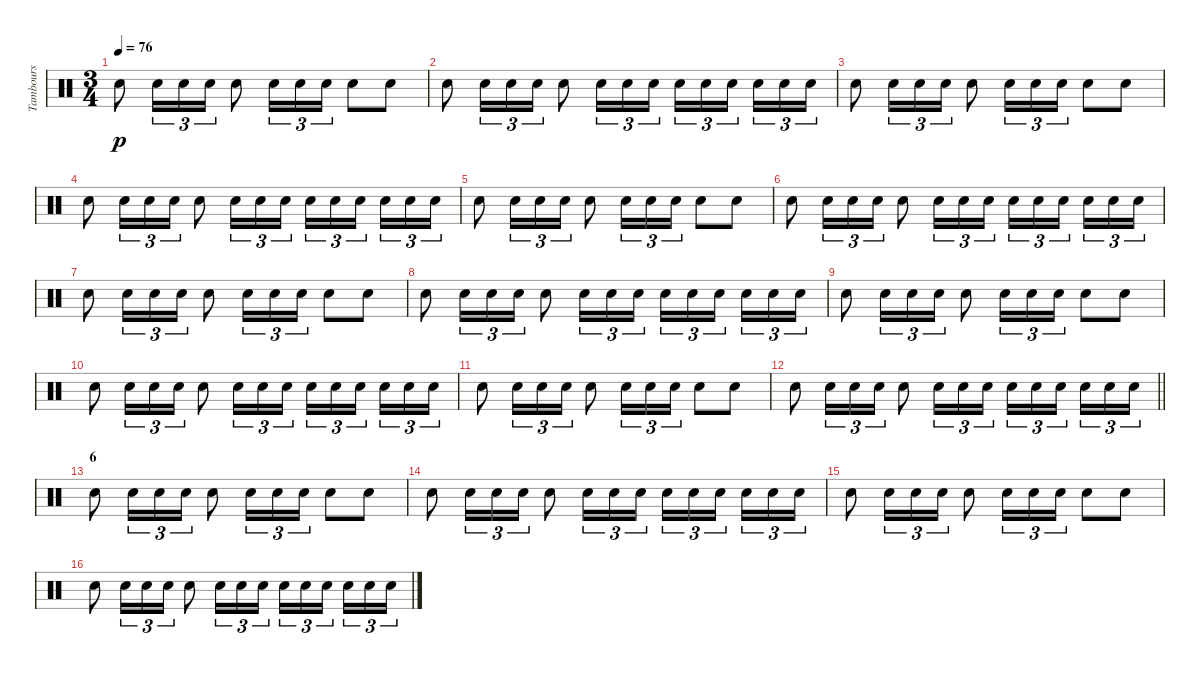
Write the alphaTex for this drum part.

\track ("Tambours" "Tambours") {instrument percussion}
\staff {score}
\articulation defaults
\ts (3 4)
\tempo 76
\clef neutral
\ks c "Snare (hit) 2".8{dy p} "Snare (hit) 2".16{tu (3 2)} "Snare (hit) 2".16{tu (3 2)} "Snare (hit) 2".16{tu (3 2)} "Snare (hit) 2".8 "Snare (hit) 2".16{tu (3 2)} "Snare (hit) 2".16{tu (3 2)} "Snare (hit) 2".16{tu (3 2)} "Snare (hit) 2".8 "Snare (hit) 2".8
|
"Snare (hit) 2".8 "Snare (hit) 2".16{tu (3 2)} "Snare (hit) 2".16{tu (3 2)} "Snare (hit) 2".16{tu (3 2)} "Snare (hit) 2".8 "Snare (hit) 2".16{tu (3 2)} "Snare (hit) 2".16{tu (3 2)} "Snare (hit) 2".16{tu (3 2)} "Snare (hit) 2".16{tu (3 2)} "Snare (hit) 2".16{tu (3 2)} "Snare (hit) 2".16{tu (3 2) beam splitsecondary} "Snare (hit) 2".16{tu (3 2)} "Snare (hit) 2".16{tu (3 2)} "Snare (hit) 2".16{tu (3 2)} |
"Snare (hit) 2".8 "Snare (hit) 2".16{tu (3 2)} "Snare (hit) 2".16{tu (3 2)} "Snare (hit) 2".16{tu (3 2)} "Snare (hit) 2".8 "Snare (hit) 2".16{tu (3 2)} "Snare (hit) 2".16{tu (3 2)} "Snare (hit) 2".16{tu (3 2)} "Snare (hit) 2".8 "Snare (hit) 2".8 |
"Snare (hit) 2".8 "Snare (hit) 2".16{tu (3 2)} "Snare (hit) 2".16{tu (3 2)} "Snare (hit) 2".16{tu (3 2)} "Snare (hit) 2".8 "Snare (hit) 2".16{tu (3 2)} "Snare (hit) 2".16{tu (3 2)} "Snare (hit) 2".16{tu (3 2)} "Snare (hit) 2".16{tu (3 2)} "Snare (hit) 2".16{tu (3 2)} "Snare (hit) 2".16{tu (3 2) beam splitsecondary} "Snare (hit) 2".16{tu (3 2)} "Snare (hit) 2".16{tu (3 2)} "Snare (hit) 2".16{tu (3 2)} |
"Snare (hit) 2".8 "Snare (hit) 2".16{tu (3 2)} "Snare (hit) 2".16{tu (3 2)} "Snare (hit) 2".16{tu (3 2)} "Snare (hit) 2".8 "Snare (hit) 2".16{tu (3 2)} "Snare (hit) 2".16{tu (3 2)} "Snare (hit) 2".16{tu (3 2)} "Snare (hit) 2".8 "Snare (hit) 2".8 |
"Snare (hit) 2".8 "Snare (hit) 2".16{tu (3 2)} "Snare (hit) 2".16{tu (3 2)} "Snare (hit) 2".16{tu (3 2)} "Snare (hit) 2".8 "Snare (hit) 2".16{tu (3 2)} "Snare (hit) 2".16{tu (3 2)} "Snare (hit) 2".16{tu (3 2)} "Snare (hit) 2".16{tu (3 2)} "Snare (hit) 2".16{tu (3 2)} "Snare (hit) 2".16{tu (3 2) beam splitsecondary} "Snare (hit) 2".16{tu (3 2)} "Snare (hit) 2".16{tu (3 2)} "Snare (hit) 2".16{tu (3 2)} |
"Snare (hit) 2".8 "Snare (hit) 2".16{tu (3 2)} "Snare (hit) 2".16{tu (3 2)} "Snare (hit) 2".16{tu (3 2)} "Snare (hit) 2".8 "Snare (hit) 2".16{tu (3 2)} "Snare (hit) 2".16{tu (3 2)} "Snare (hit) 2".16{tu (3 2)} "Snare (hit) 2".8 "Snare (hit) 2".8 |
"Snare (hit) 2".8 "Snare (hit) 2".16{tu (3 2)} "Snare (hit) 2".16{tu (3 2)} "Snare (hit) 2".16{tu (3 2)} "Snare (hit) 2".8 "Snare (hit) 2".16{tu (3 2)} "Snare (hit) 2".16{tu (3 2)} "Snare (hit) 2".16{tu (3 2)} "Snare (hit) 2".16{tu (3 2)} "Snare (hit) 2".16{tu (3 2)} "Snare (hit) 2".16{tu (3 2) beam splitsecondary} "Snare (hit) 2".16{tu (3 2)} "Snare (hit) 2".16{tu (3 2)} "Snare (hit) 2".16{tu (3 2)} |
"Snare (hit) 2".8 "Snare (hit) 2".16{tu (3 2)} "Snare (hit) 2".16{tu (3 2)} "Snare (hit) 2".16{tu (3 2)} "Snare (hit) 2".8 "Snare (hit) 2".16{tu (3 2)} "Snare (hit) 2".16{tu (3 2)} "Snare (hit) 2".16{tu (3 2)} "Snare (hit) 2".8 "Snare (hit) 2".8 |
"Snare (hit) 2".8 "Snare (hit) 2".16{tu (3 2)} "Snare (hit) 2".16{tu (3 2)} "Snare (hit) 2".16{tu (3 2)} "Snare (hit) 2".8 "Snare (hit) 2".16{tu (3 2)} "Snare (hit) 2".16{tu (3 2)} "Snare (hit) 2".16{tu (3 2)} "Snare (hit) 2".16{tu (3 2)} "Snare (hit) 2".16{tu (3 2)} "Snare (hit) 2".16{tu (3 2) beam splitsecondary} "Snare (hit) 2".16{tu (3 2)} "Snare (hit) 2".16{tu (3 2)} "Snare (hit) 2".16{tu (3 2)} |
"Snare (hit) 2".8 "Snare (hit) 2".16{tu (3 2)} "Snare (hit) 2".16{tu (3 2)} "Snare (hit) 2".16{tu (3 2)} "Snare (hit) 2".8 "Snare (hit) 2".16{tu (3 2)} "Snare (hit) 2".16{tu (3 2)} "Snare (hit) 2".16{tu (3 2)} "Snare (hit) 2".8 "Snare (hit) 2".8 |
\barLineRight lightlight "Snare (hit) 2".8 "Snare (hit) 2".16{tu (3 2)} "Snare (hit) 2".16{tu (3 2)} "Snare (hit) 2".16{tu (3 2)} "Snare (hit) 2".8 "Snare (hit) 2".16{tu (3 2)} "Snare (hit) 2".16{tu (3 2)} "Snare (hit) 2".16{tu (3 2)} "Snare (hit) 2".16{tu (3 2)} "Snare (hit) 2".16{tu (3 2)} "Snare (hit) 2".16{tu (3 2) beam splitsecondary} "Snare (hit) 2".16{tu (3 2)} "Snare (hit) 2".16{tu (3 2)} "Snare (hit) 2".16{tu (3 2)}
|
\section ("" "6")
"Snare (hit) 2".8 "Snare (hit) 2".16{tu (3 2)} "Snare (hit) 2".16{tu (3 2)} "Snare (hit) 2".16{tu (3 2)} "Snare (hit) 2".8 "Snare (hit) 2".16{tu (3 2)} "Snare (hit) 2".16{tu (3 2)} "Snare (hit) 2".16{tu (3 2)} "Snare (hit) 2".8 "Snare (hit) 2".8 |
"Snare (hit) 2".8 "Snare (hit) 2".16{tu (3 2)} "Snare (hit) 2".16{tu (3 2)} "Snare (hit) 2".16{tu (3 2)} "Snare (hit) 2".8 "Snare (hit) 2".16{tu (3 2)} "Snare (hit) 2".16{tu (3 2)} "Snare (hit) 2".16{tu (3 2)} "Snare (hit) 2".16{tu (3 2)} "Snare (hit) 2".16{tu (3 2)} "Snare (hit) 2".16{tu (3 2) beam splitsecondary} "Snare (hit) 2".16{tu (3 2)} "Snare (hit) 2".16{tu (3 2)} "Snare (hit) 2".16{tu (3 2)} |
"Snare (hit) 2".8 "Snare (hit) 2".16{tu (3 2)} "Snare (hit) 2".16{tu (3 2)} "Snare (hit) 2".16{tu (3 2)} "Snare (hit) 2".8 "Snare (hit) 2".16{tu (3 2)} "Snare (hit) 2".16{tu (3 2)} "Snare (hit) 2".16{tu (3 2)} "Snare (hit) 2".8 "Snare (hit) 2".8 |
"Snare (hit) 2".8 "Snare (hit) 2".16{tu (3 2)} "Snare (hit) 2".16{tu (3 2)} "Snare (hit) 2".16{tu (3 2)} "Snare (hit) 2".8 "Snare (hit) 2".16{tu (3 2)} "Snare (hit) 2".16{tu (3 2)} "Snare (hit) 2".16{tu (3 2)} "Snare (hit) 2".16{tu (3 2)} "Snare (hit) 2".16{tu (3 2)} "Snare (hit) 2".16{tu (3 2) beam splitsecondary} "Snare (hit) 2".16{tu (3 2)} "Snare (hit) 2".16{tu (3 2)} "Snare (hit) 2".16{tu (3 2)}
